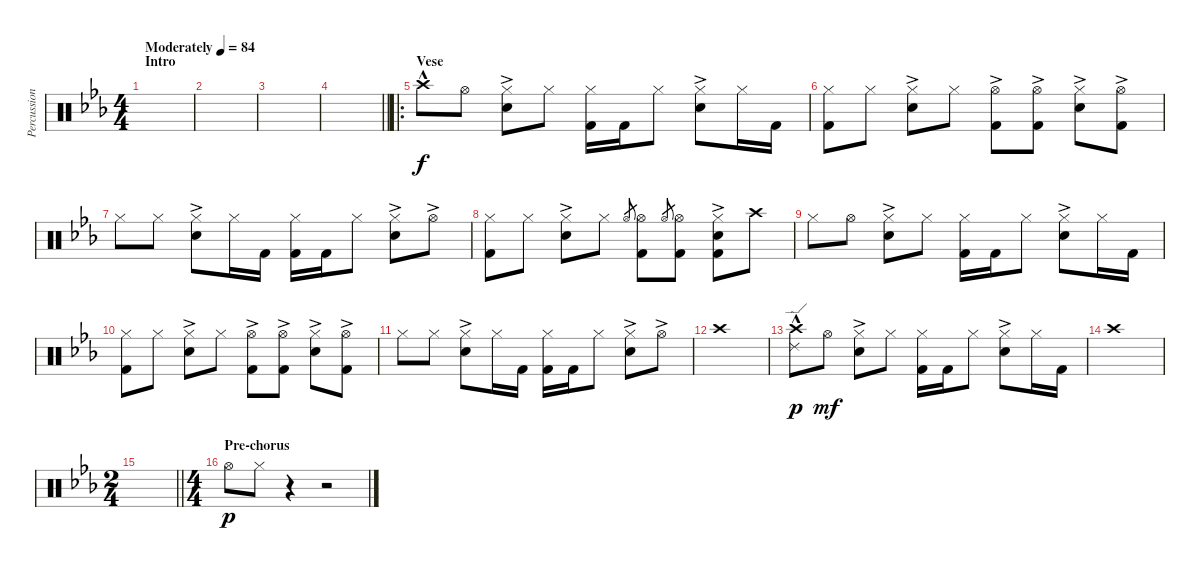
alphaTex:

\track ("Percussion" "Percussion") {instrument percussion}
\staff {score}
\articulation defaults
\ts (4 4)
\section ("" "Intro")
\tempo (84 "Moderately")
\clef neutral
\ks cminor
|
|
|
\barLineRight lightlight
|
\ro
\section ("" "Vese")
"Crash high (hit)"{hac}.8 "Hi-Hat (open)".8 ("Hi-Hat (closed)" "Snare (hit) 2"{ac}).8 "Hi-Hat (closed)".8 ("Hi-Hat (closed)" "Kick (hit) 2").16 "Kick (hit) 2".16 "Hi-Hat (closed)".8 ("Hi-Hat (closed)" "Snare (hit) 2"{ac}).8 "Hi-Hat (closed)".16 "Kick (hit) 2".16 |
("Hi-Hat (closed)" "Kick (hit) 2").8 "Hi-Hat (closed)".8 ("Hi-Hat (closed)" "Snare (hit) 2"{ac}).8 "Hi-Hat (closed)".8 ("Hi-Hat (open)"{ac} "Kick (hit) 2").8 ("Hi-Hat (open)"{ac} "Kick (hit) 2").8 ("Hi-Hat (closed)" "Snare (hit) 2"{ac}).8 ("Hi-Hat (open)"{ac} "Kick (hit) 2").8 |
"Hi-Hat (closed)".8 "Hi-Hat (closed)".8 ("Hi-Hat (closed)" "Snare (hit) 2"{ac}).8 "Hi-Hat (closed)".16 "Kick (hit) 2".16 ("Hi-Hat (closed)" "Kick (hit) 2").16 "Kick (hit) 2".16 "Hi-Hat (closed)".8 ("Hi-Hat (closed)" "Snare (hit) 2"{ac}).8 "Hi-Hat (open)"{ac}.8 |
("Hi-Hat (closed)" "Kick (hit) 2").8 "Hi-Hat (closed)".8 ("Hi-Hat (closed)" "Snare (hit) 2"{ac}).8 "Hi-Hat (closed)".8 "Hi-Hat (open)".8{gr} ("Hi-Hat (open)" "Kick (hit) 2").8 "Hi-Hat (open)".8{gr} ("Hi-Hat (open)" "Kick (hit) 2").8 ("Hi-Hat (closed)" "Snare (hit) 2"{ac} "Kick (hit) 2").8 "Crash high (hit)".8 |
"Hi-Hat (closed)".8 "Hi-Hat (open)".8 ("Hi-Hat (closed)" "Snare (hit) 2"{ac}).8 "Hi-Hat (closed)".8 ("Hi-Hat (closed)" "Kick (hit) 2").16 "Kick (hit) 2".16 "Hi-Hat (closed)".8 ("Hi-Hat (closed)" "Snare (hit) 2"{ac}).8 "Hi-Hat (closed)".16 "Kick (hit) 2".16 |
("Hi-Hat (closed)" "Kick (hit) 2").8 "Hi-Hat (closed)".8 ("Hi-Hat (closed)" "Snare (hit) 2"{ac}).8 "Hi-Hat (closed)".8 ("Hi-Hat (open)"{ac} "Kick (hit) 2").8 ("Hi-Hat (open)"{ac} "Kick (hit) 2").8 ("Hi-Hat (closed)" "Snare (hit) 2"{ac}).8 ("Hi-Hat (open)"{ac} "Kick (hit) 2").8 |
"Hi-Hat (closed)".8 "Hi-Hat (closed)".8 ("Hi-Hat (closed)" "Snare (hit) 2"{ac}).8 "Hi-Hat (closed)".16 "Kick (hit) 2".16 ("Hi-Hat (closed)" "Kick (hit) 2").16 "Kick (hit) 2".16 "Hi-Hat (closed)".8 ("Hi-Hat (closed)" "Snare (hit) 2"{ac}).8 "Hi-Hat (open)"{ac}.8 |
"Crash high (hit)".1 |
("Crash high (hit)"{hac} "Ride (edge) 2").8{dy p} "Hi-Hat (open)".8{dy mf} ("Hi-Hat (closed)" "Snare (hit) 2"{ac}).8 "Hi-Hat (closed)".8 ("Hi-Hat (closed)" "Kick (hit) 2").16 "Kick (hit) 2".16 "Hi-Hat (closed)".8 ("Hi-Hat (closed)" "Snare (hit) 2"{ac}).8 "Hi-Hat (closed)".16 "Kick (hit) 2".16 |
"Crash high (hit)".1 |
\ts (2 4)
\barLineRight lightlight
|
\ts (4 4)
\section ("" "Pre-chorus")
"Hi-Hat (open)".8{dy p} "Hi-Hat (closed)".8 r.4 r.2
